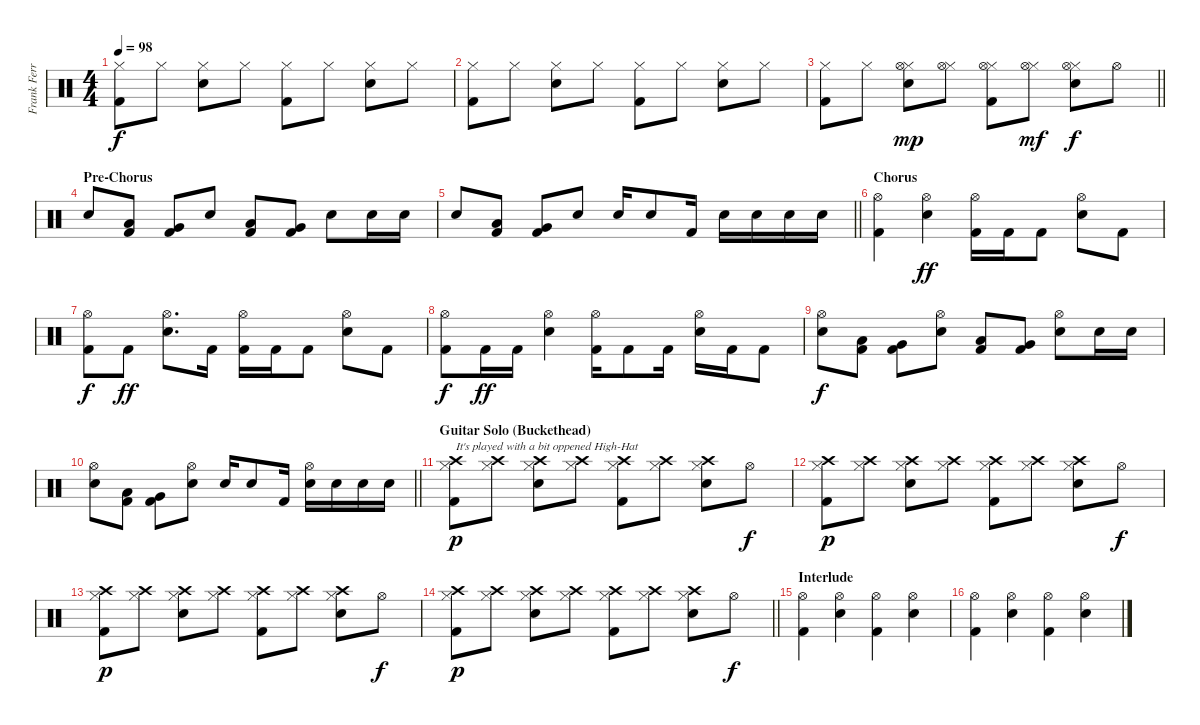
\track ("Frank Ferrer" "Frank Ferr") {instrument percussion}
\staff {score}
\articulation defaults
\ts (4 4)
\tempo 98
\clef neutral
\ks c
("Hi-Hat (closed)" "Kick (hit) 2").8{dy f} "Hi-Hat (closed)".8 ("Hi-Hat (closed)" "Snare (hit) 2").8 "Hi-Hat (closed)".8 ("Hi-Hat (closed)" "Kick (hit) 2").8 "Hi-Hat (closed)".8 ("Hi-Hat (closed)" "Snare (hit) 2").8 "Hi-Hat (closed)".8 |
("Hi-Hat (closed)" "Kick (hit) 2").8 "Hi-Hat (closed)".8 ("Hi-Hat (closed)" "Snare (hit) 2").8 "Hi-Hat (closed)".8 ("Hi-Hat (closed)" "Kick (hit) 2").8 "Hi-Hat (closed)".8 ("Hi-Hat (closed)" "Snare (hit) 2").8 "Hi-Hat (closed)".8 |
\barLineRight lightlight
("Hi-Hat (closed)" "Kick (hit) 2").8 "Hi-Hat (closed)".8 ("Hi-Hat (closed)" "Hi-Hat (open)" "Snare (hit) 2").8{dy mp} ("Hi-Hat (closed)" "Hi-Hat (open)").8 ("Hi-Hat (closed)" "Hi-Hat (open)" "Kick (hit) 2").8 ("Hi-Hat (closed)" "Hi-Hat (open)").8{dy mf} ("Hi-Hat (closed)" "Hi-Hat (open)" "Snare (hit) 2").8{dy f} "Hi-Hat (open)".8 |
\section ("" "Pre-Chorus")
"Snare (hit) 2".8 ("Low Tom (hit)" "Kick (hit) 2").8 ("Very Low Tom (hit)" "Kick (hit) 2").8 "Snare (hit) 2".8 ("Low Tom (hit)" "Kick (hit) 2").8 ("Very Low Tom (hit)" "Kick (hit) 2").8 "Snare (hit) 2".8 "Snare (hit) 2".16 "Snare (hit) 2".16 |
\barLineRight lightlight "Snare (hit) 2".8
("Low Tom (hit)" "Kick (hit) 2").8 ("Very Low Tom (hit)" "Kick (hit) 2").8 "Snare (hit) 2".8 "Snare (hit) 2".16 "Snare (hit) 2".8 "Kick (hit) 2".16 "Snare (hit) 2".16 "Snare (hit) 2".16 "Snare (hit) 2".16 "Snare (hit) 2".16 |
\section ("" "Chorus")
("Hi-Hat (open)" "Kick (hit) 2").4 ("Hi-Hat (open)" "Snare (hit) 2").4{dy ff} ("Hi-Hat (open)" "Kick (hit) 2").16 "Kick (hit) 2".16 "Kick (hit) 2".8 ("Hi-Hat (open)" "Snare (hit) 2").8 "Kick (hit) 2".8 |
("Hi-Hat (open)" "Kick (hit) 2").8{dy f} "Kick (hit) 2".8{dy ff} ("Hi-Hat (open)" "Snare (hit) 2").8{d} "Kick (hit) 2".16 ("Hi-Hat (open)" "Kick (hit) 2").16 "Kick (hit) 2".16 "Kick (hit) 2".8 ("Hi-Hat (open)" "Snare (hit) 2").8 "Kick (hit) 2".8 |
("Hi-Hat (open)" "Kick (hit) 2").8{dy f} "Kick (hit) 2".16{dy ff} "Kick (hit) 2".16 ("Hi-Hat (open)" "Snare (hit) 2").4 ("Hi-Hat (open)" "Kick (hit) 2").16 "Kick (hit) 2".8 "Kick (hit) 2".16 ("Hi-Hat (open)" "Snare (hit) 2").16 "Kick (hit) 2".16 "Kick (hit) 2".8 |
("Hi-Hat (open)" "Snare (hit) 2").8{dy f} ("Low Tom (hit)" "Kick (hit) 2").8 ("Very Low Tom (hit)" "Kick (hit) 2").8 ("Hi-Hat (open)" "Snare (hit) 2").8 ("Low Tom (hit)" "Kick (hit) 2").8 ("Very Low Tom (hit)" "Kick (hit) 2").8 ("Hi-Hat (open)" "Snare (hit) 2").8 "Snare (hit) 2".16 "Snare (hit) 2".16 |
\barLineRight lightlight
("Hi-Hat (open)" "Snare (hit) 2").8 ("Low Tom (hit)" "Kick (hit) 2").8 ("Very Low Tom (hit)" "Kick (hit) 2").8 ("Hi-Hat (open)" "Snare (hit) 2").8 "Snare (hit) 2".16 "Snare (hit) 2".8 "Kick (hit) 2".16 ("Hi-Hat (open)" "Snare (hit) 2").16 "Snare (hit) 2".16 "Snare (hit) 2".16 "Snare (hit) 2".16 |
\section ("" "Guitar Solo (Buckethead)")
("Hi-Hat (closed)" "Crash high (hit)" "Kick (hit) 2").8{txt "It's played with a bit oppened High-Hat" dy p} ("Hi-Hat (closed)" "Crash high (hit)").8 ("Hi-Hat (closed)" "Crash high (hit)" "Snare (hit) 2").8 ("Hi-Hat (closed)" "Crash high (hit)").8 ("Hi-Hat (closed)" "Crash high (hit)" "Kick (hit) 2").8 ("Hi-Hat (closed)" "Crash high (hit)").8 ("Hi-Hat (closed)" "Crash high (hit)" "Snare (hit) 2").8 "Hi-Hat (open)".8{dy f} |
("Hi-Hat (closed)" "Crash high (hit)" "Kick (hit) 2").8{dy p} ("Hi-Hat (closed)" "Crash high (hit)").8 ("Hi-Hat (closed)" "Crash high (hit)" "Snare (hit) 2").8 ("Hi-Hat (closed)" "Crash high (hit)").8 ("Hi-Hat (closed)" "Crash high (hit)" "Kick (hit) 2").8 ("Hi-Hat (closed)" "Crash high (hit)").8 ("Hi-Hat (closed)" "Crash high (hit)" "Snare (hit) 2").8 "Hi-Hat (open)".8{dy f} |
("Hi-Hat (closed)" "Crash high (hit)" "Kick (hit) 2").8{dy p} ("Hi-Hat (closed)" "Crash high (hit)").8 ("Hi-Hat (closed)" "Crash high (hit)" "Snare (hit) 2").8 ("Hi-Hat (closed)" "Crash high (hit)").8 ("Hi-Hat (closed)" "Crash high (hit)" "Kick (hit) 2").8 ("Hi-Hat (closed)" "Crash high (hit)").8 ("Hi-Hat (closed)" "Crash high (hit)" "Snare (hit) 2").8 "Hi-Hat (open)".8{dy f} |
\barLineRight lightlight
("Hi-Hat (closed)" "Crash high (hit)" "Kick (hit) 2").8{dy p} ("Hi-Hat (closed)" "Crash high (hit)").8 ("Hi-Hat (closed)" "Crash high (hit)" "Snare (hit) 2").8 ("Hi-Hat (closed)" "Crash high (hit)").8 ("Hi-Hat (closed)" "Crash high (hit)" "Kick (hit) 2").8 ("Hi-Hat (closed)" "Crash high (hit)").8 ("Hi-Hat (closed)" "Crash high (hit)" "Snare (hit) 2").8 "Hi-Hat (open)".8{dy f} |
\section ("" "Interlude")
("Hi-Hat (open)" "Kick (hit) 2").4 ("Hi-Hat (open)" "Snare (hit) 2").4 ("Hi-Hat (open)" "Kick (hit) 2").4 ("Hi-Hat (open)" "Snare (hit) 2").4 |
("Hi-Hat (open)" "Kick (hit) 2").4 ("Hi-Hat (open)" "Snare (hit) 2").4 ("Hi-Hat (open)" "Kick (hit) 2").4 ("Hi-Hat (open)" "Snare (hit) 2").4
